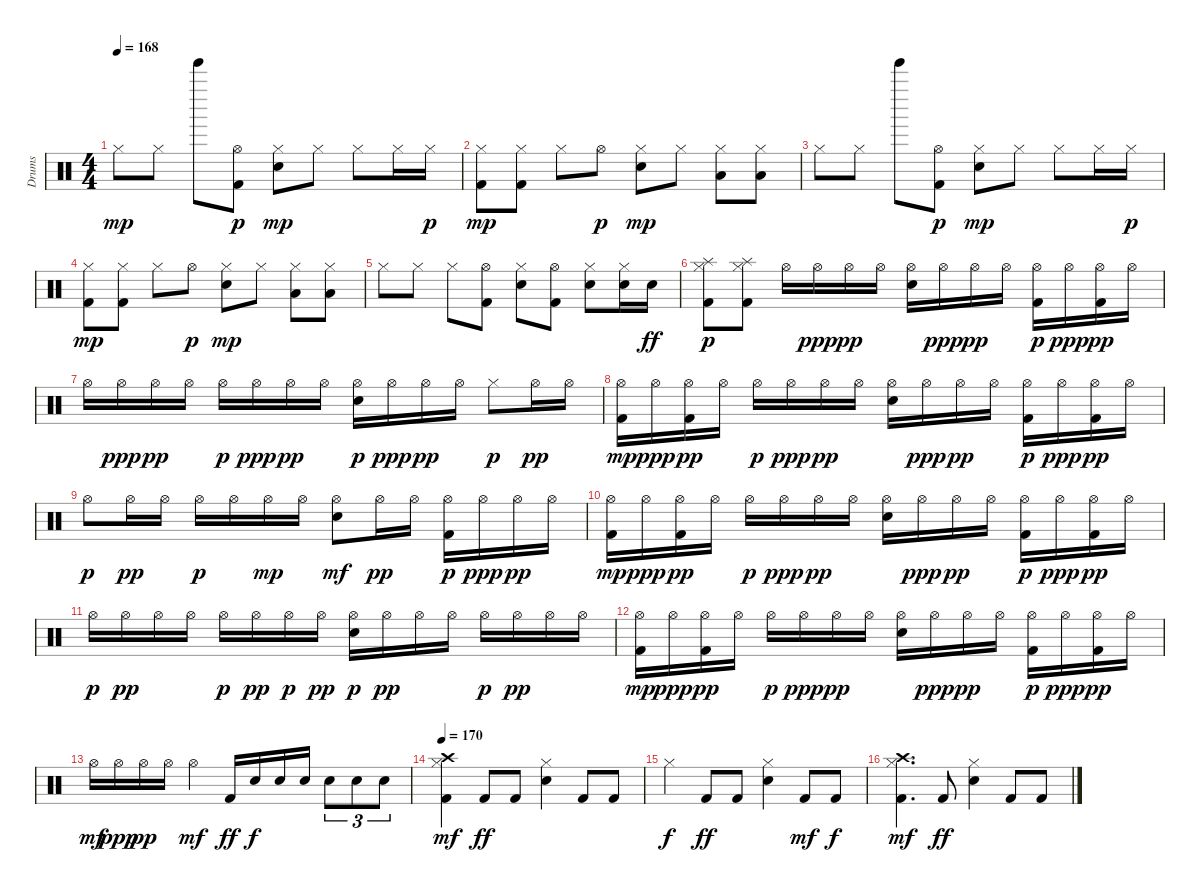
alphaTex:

\track ("Drums" "Drums") {instrument percussion}
\staff {score}
\articulation defaults
\ts (4 4)
\tempo 168
\clef neutral
\ks c "Hi-Hat (closed)".8{dy mp} "Hi-Hat (closed)".8 "Tinkle Bell (hit)".8
("Kick (hit) 2" "Hi-Hat (open)").8{dy p} ("Electric Snare (hit)" "Hi-Hat (closed)").8{dy mp} "Hi-Hat (closed)".8 "Hi-Hat (closed)".8 "Hi-Hat (closed)".16 "Hi-Hat (closed)".16{dy p} |
("Kick (hit) 2" "Hi-Hat (closed)").8{dy mp} ("Kick (hit) 2" "Hi-Hat (closed)").8 "Hi-Hat (closed)".8 "Hi-Hat (open)".8{dy p} ("Electric Snare (hit)" "Hi-Hat (closed)").8{dy mp} "Hi-Hat (closed)".8 ("Low Tom (hit)" "Hi-Hat (closed)").8 ("Low Tom (hit)" "Hi-Hat (closed)").8 |
"Hi-Hat (closed)".8 "Hi-Hat (closed)".8 "Tinkle Bell (hit)".8 ("Kick (hit) 2" "Hi-Hat (open)").8{dy p} ("Electric Snare (hit)" "Hi-Hat (closed)").8{dy mp} "Hi-Hat (closed)".8 "Hi-Hat (closed)".8 "Hi-Hat (closed)".16 "Hi-Hat (closed)".16{dy p} |
("Kick (hit) 2" "Hi-Hat (closed)").8{dy mp} ("Kick (hit) 2" "Hi-Hat (closed)").8 "Hi-Hat (closed)".8 "Hi-Hat (open)".8{dy p} ("Electric Snare (hit)" "Hi-Hat (closed)").8{dy mp} "Hi-Hat (closed)".8 ("Low Tom (hit)" "Hi-Hat (closed)").8 ("Low Tom (hit)" "Hi-Hat (closed)").8 |
"Hi-Hat (closed)".8 "Hi-Hat (closed)".8 "Hi-Hat (closed)".8 ("Kick (hit) 2" "Hi-Hat (open)").8 ("Electric Snare (hit)" "Hi-Hat (closed)").8 ("Kick (hit) 2" "Hi-Hat (open)").8 ("Electric Snare (hit)" "Hi-Hat (closed)").8 ("Electric Snare (hit)" "Hi-Hat (closed)").16 "Electric Snare (hit)".16{dy ff} |
("Kick (hit) 2" "Hi-Hat (closed)" "Splash (hit)").8{dy p} ("Kick (hit) 2" "Hi-Hat (closed)" "Splash (hit)").8 "Hi-Hat (open)".16 "Hi-Hat (open)".16{dy ppp} "Hi-Hat (open)".16{dy pp} "Hi-Hat (open)".16 ("Electric Snare (hit)" "Hi-Hat (open)").16 "Hi-Hat (open)".16{dy ppp} "Hi-Hat (open)".16{dy pp} "Hi-Hat (open)".16 ("Kick (hit) 2" "Hi-Hat (open)").16{dy p} "Hi-Hat (open)".16{dy ppp} ("Kick (hit) 2" "Hi-Hat (open)").16{dy pp} "Hi-Hat (open)".16 |
"Hi-Hat (open)".16 "Hi-Hat (open)".16{dy ppp} "Hi-Hat (open)".16{dy pp} "Hi-Hat (open)".16 "Hi-Hat (open)".16{dy p} "Hi-Hat (open)".16{dy ppp} "Hi-Hat (open)".16{dy pp} "Hi-Hat (open)".16 ("Electric Snare (hit)" "Hi-Hat (open)").16{dy p} "Hi-Hat (open)".16{dy ppp} "Hi-Hat (open)".16{dy pp} "Hi-Hat (open)".16 "Hi-Hat (closed)".8{dy p} "Hi-Hat (open)".16{dy pp} "Hi-Hat (open)".16 |
("Kick (hit) 2" "Hi-Hat (open)").16{dy mp} "Hi-Hat (open)".16{dy ppp} ("Kick (hit) 2" "Hi-Hat (open)").16{dy pp} "Hi-Hat (open)".16 "Hi-Hat (open)".16{dy p} "Hi-Hat (open)".16{dy ppp} "Hi-Hat (open)".16{dy pp} "Hi-Hat (open)".16 ("Electric Snare (hit)" "Hi-Hat (open)").16 "Hi-Hat (open)".16{dy ppp} "Hi-Hat (open)".16{dy pp} "Hi-Hat (open)".16 ("Kick (hit) 2" "Hi-Hat (open)").16{dy p} "Hi-Hat (open)".16{dy ppp} ("Kick (hit) 2" "Hi-Hat (open)").16{dy pp} "Hi-Hat (open)".16 |
"Hi-Hat (open)".8{dy p} "Hi-Hat (open)".16{dy pp} "Hi-Hat (open)".16 "Hi-Hat (open)".16{dy p} "Hi-Hat (open)".16 "Hi-Hat (open)".16{dy mp} "Hi-Hat (open)".16 ("Electric Snare (hit)" "Hi-Hat (open)").8{dy mf} "Hi-Hat (open)".16{dy pp} "Hi-Hat (open)".16 ("Kick (hit) 2" "Hi-Hat (open)").16{dy p} "Hi-Hat (open)".16{dy ppp} "Hi-Hat (open)".16{dy pp} "Hi-Hat (open)".16 |
("Kick (hit) 2" "Hi-Hat (open)").16{dy mp} "Hi-Hat (open)".16{dy ppp} ("Kick (hit) 2" "Hi-Hat (open)").16{dy pp} "Hi-Hat (open)".16 "Hi-Hat (open)".16{dy p} "Hi-Hat (open)".16{dy ppp} "Hi-Hat (open)".16{dy pp} "Hi-Hat (open)".16 ("Electric Snare (hit)" "Hi-Hat (open)").16 "Hi-Hat (open)".16{dy ppp} "Hi-Hat (open)".16{dy pp} "Hi-Hat (open)".16 ("Kick (hit) 2" "Hi-Hat (open)").16{dy p} "Hi-Hat (open)".16{dy ppp} ("Kick (hit) 2" "Hi-Hat (open)").16{dy pp} "Hi-Hat (open)".16 |
"Hi-Hat (open)".16{dy p} "Hi-Hat (open)".16{dy pp} "Hi-Hat (open)".16 "Hi-Hat (open)".16 "Hi-Hat (open)".16{dy p} "Hi-Hat (open)".16{dy pp} "Hi-Hat (open)".16{dy p} "Hi-Hat (open)".16{dy pp} ("Electric Snare (hit)" "Hi-Hat (open)").16{dy p} "Hi-Hat (open)".16{dy pp} "Hi-Hat (open)".16 "Hi-Hat (open)".16 "Hi-Hat (open)".16{dy p} "Hi-Hat (open)".16{dy pp} "Hi-Hat (open)".16 "Hi-Hat (open)".16 |
("Kick (hit) 2" "Hi-Hat (open)").16{dy mp} "Hi-Hat (open)".16{dy ppp} ("Kick (hit) 2" "Hi-Hat (open)").16{dy pp} "Hi-Hat (open)".16 "Hi-Hat (open)".16{dy p} "Hi-Hat (open)".16{dy ppp} "Hi-Hat (open)".16{dy pp} "Hi-Hat (open)".16 ("Electric Snare (hit)" "Hi-Hat (open)").16 "Hi-Hat (open)".16{dy ppp} "Hi-Hat (open)".16{dy pp} "Hi-Hat (open)".16 ("Kick (hit) 2" "Hi-Hat (open)").16{dy p} "Hi-Hat (open)".16{dy ppp} ("Kick (hit) 2" "Hi-Hat (open)").16{dy pp} "Hi-Hat (open)".16 |
"Hi-Hat (open)".16{dy mf} "Hi-Hat (open)".16{dy ppp} "Hi-Hat (open)".16{dy pp} "Hi-Hat (open)".16 "Hi-Hat (open)".4{dy mf} "Kick (hit) 2".16{dy ff} "Electric Snare (hit)".16{dy f} "Electric Snare (hit)".16 "Electric Snare (hit)".16 "Electric Snare (hit)".8{tu (3 2)} "Electric Snare (hit)".8{tu (3 2)} "Electric Snare (hit)".8{tu (3 2)} |
\tempo 170
("Kick (hit) 2" "Hi-Hat (closed)" "Crash high (hit)").4{dy mf} "Kick (hit) 2".8{dy ff} "Kick (hit) 2".8 ("Electric Snare (hit)" "Hi-Hat (closed)").4 "Kick (hit) 2".8 "Kick (hit) 2".8 |
"Hi-Hat (closed)".4{dy f} "Kick (hit) 2".8{dy ff} "Kick (hit) 2".8 ("Electric Snare (hit)" "Hi-Hat (closed)").4 "Kick (hit) 2".8{dy mf} "Kick (hit) 2".8{dy f} |
("Kick (hit) 2" "Hi-Hat (closed)" "Crash high (hit)").4{d dy mf} "Kick (hit) 2".8{dy ff} ("Electric Snare (hit)" "Hi-Hat (closed)").4 "Kick (hit) 2".8 "Kick (hit) 2".8
